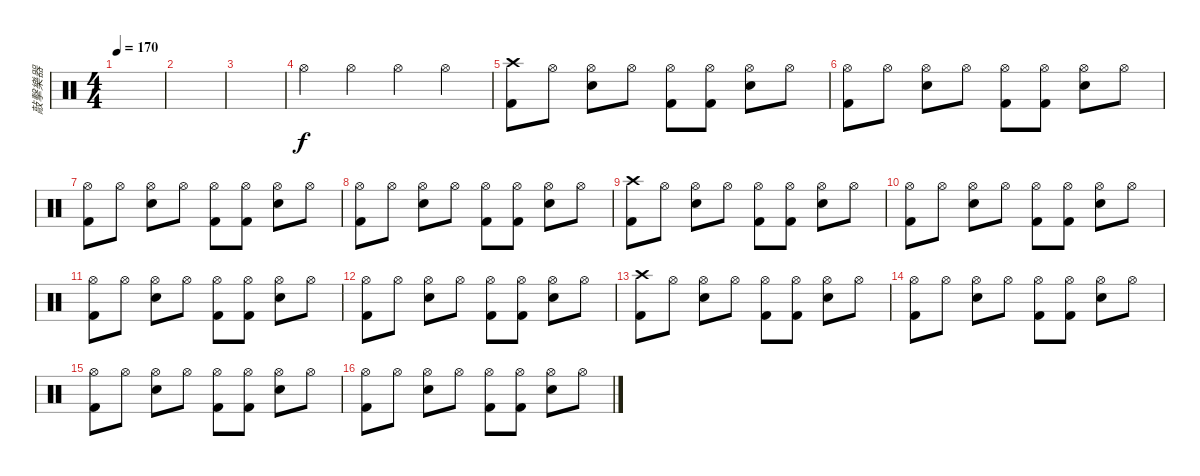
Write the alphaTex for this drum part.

\track ("敲擊樂器" "敲擊樂器") {instrument percussion}
\staff {score}
\articulation defaults
\ts (4 4)
\tempo 170
\clef neutral
\ks c
|
|
|
"Hi-Hat (open)".4 "Hi-Hat (open)".4 "Hi-Hat (open)".4 "Hi-Hat (open)".4 |
("Crash high (hit)" "Kick (hit) 2").8 "Hi-Hat (open)".8 ("Hi-Hat (open)" "Snare (hit) 2").8 "Hi-Hat (open)".8 ("Hi-Hat (open)" "Kick (hit) 2").8 ("Hi-Hat (open)" "Kick (hit) 2").8 ("Hi-Hat (open)" "Snare (hit) 2").8 "Hi-Hat (open)".8 |
("Hi-Hat (open)" "Kick (hit) 2").8 "Hi-Hat (open)".8 ("Hi-Hat (open)" "Snare (hit) 2").8 "Hi-Hat (open)".8 ("Hi-Hat (open)" "Kick (hit) 2").8 ("Hi-Hat (open)" "Kick (hit) 2").8 ("Hi-Hat (open)" "Snare (hit) 2").8 "Hi-Hat (open)".8 |
("Hi-Hat (open)" "Kick (hit) 2").8 "Hi-Hat (open)".8 ("Hi-Hat (open)" "Snare (hit) 2").8 "Hi-Hat (open)".8 ("Hi-Hat (open)" "Kick (hit) 2").8 ("Hi-Hat (open)" "Kick (hit) 2").8 ("Hi-Hat (open)" "Snare (hit) 2").8 "Hi-Hat (open)".8 |
("Hi-Hat (open)" "Kick (hit) 2").8 "Hi-Hat (open)".8 ("Hi-Hat (open)" "Snare (hit) 2").8 "Hi-Hat (open)".8 ("Hi-Hat (open)" "Kick (hit) 2").8 ("Hi-Hat (open)" "Kick (hit) 2").8 ("Hi-Hat (open)" "Snare (hit) 2").8 "Hi-Hat (open)".8 |
("Crash high (hit)" "Kick (hit) 2").8 "Hi-Hat (open)".8 ("Hi-Hat (open)" "Snare (hit) 2").8 "Hi-Hat (open)".8 ("Hi-Hat (open)" "Kick (hit) 2").8 ("Hi-Hat (open)" "Kick (hit) 2").8 ("Hi-Hat (open)" "Snare (hit) 2").8 "Hi-Hat (open)".8 |
("Hi-Hat (open)" "Kick (hit) 2").8 "Hi-Hat (open)".8 ("Hi-Hat (open)" "Snare (hit) 2").8 "Hi-Hat (open)".8 ("Hi-Hat (open)" "Kick (hit) 2").8 ("Hi-Hat (open)" "Kick (hit) 2").8 ("Hi-Hat (open)" "Snare (hit) 2").8 "Hi-Hat (open)".8 |
("Hi-Hat (open)" "Kick (hit) 2").8 "Hi-Hat (open)".8 ("Hi-Hat (open)" "Snare (hit) 2").8 "Hi-Hat (open)".8 ("Hi-Hat (open)" "Kick (hit) 2").8 ("Hi-Hat (open)" "Kick (hit) 2").8 ("Hi-Hat (open)" "Snare (hit) 2").8 "Hi-Hat (open)".8 |
("Hi-Hat (open)" "Kick (hit) 2").8 "Hi-Hat (open)".8 ("Hi-Hat (open)" "Snare (hit) 2").8 "Hi-Hat (open)".8 ("Hi-Hat (open)" "Kick (hit) 2").8 ("Hi-Hat (open)" "Kick (hit) 2").8 ("Hi-Hat (open)" "Snare (hit) 2").8 "Hi-Hat (open)".8 |
("Crash high (hit)" "Kick (hit) 2").8 "Hi-Hat (open)".8 ("Hi-Hat (open)" "Snare (hit) 2").8 "Hi-Hat (open)".8 ("Hi-Hat (open)" "Kick (hit) 2").8 ("Hi-Hat (open)" "Kick (hit) 2").8 ("Hi-Hat (open)" "Snare (hit) 2").8 "Hi-Hat (open)".8 |
("Hi-Hat (open)" "Kick (hit) 2").8 "Hi-Hat (open)".8 ("Hi-Hat (open)" "Snare (hit) 2").8 "Hi-Hat (open)".8 ("Hi-Hat (open)" "Kick (hit) 2").8 ("Hi-Hat (open)" "Kick (hit) 2").8 ("Hi-Hat (open)" "Snare (hit) 2").8 "Hi-Hat (open)".8 |
("Hi-Hat (open)" "Kick (hit) 2").8 "Hi-Hat (open)".8 ("Hi-Hat (open)" "Snare (hit) 2").8 "Hi-Hat (open)".8 ("Hi-Hat (open)" "Kick (hit) 2").8 ("Hi-Hat (open)" "Kick (hit) 2").8 ("Hi-Hat (open)" "Snare (hit) 2").8 "Hi-Hat (open)".8 |
("Hi-Hat (open)" "Kick (hit) 2").8 "Hi-Hat (open)".8 ("Hi-Hat (open)" "Snare (hit) 2").8 "Hi-Hat (open)".8 ("Hi-Hat (open)" "Kick (hit) 2").8 ("Hi-Hat (open)" "Kick (hit) 2").8 ("Hi-Hat (open)" "Snare (hit) 2").8 "Hi-Hat (open)".8
